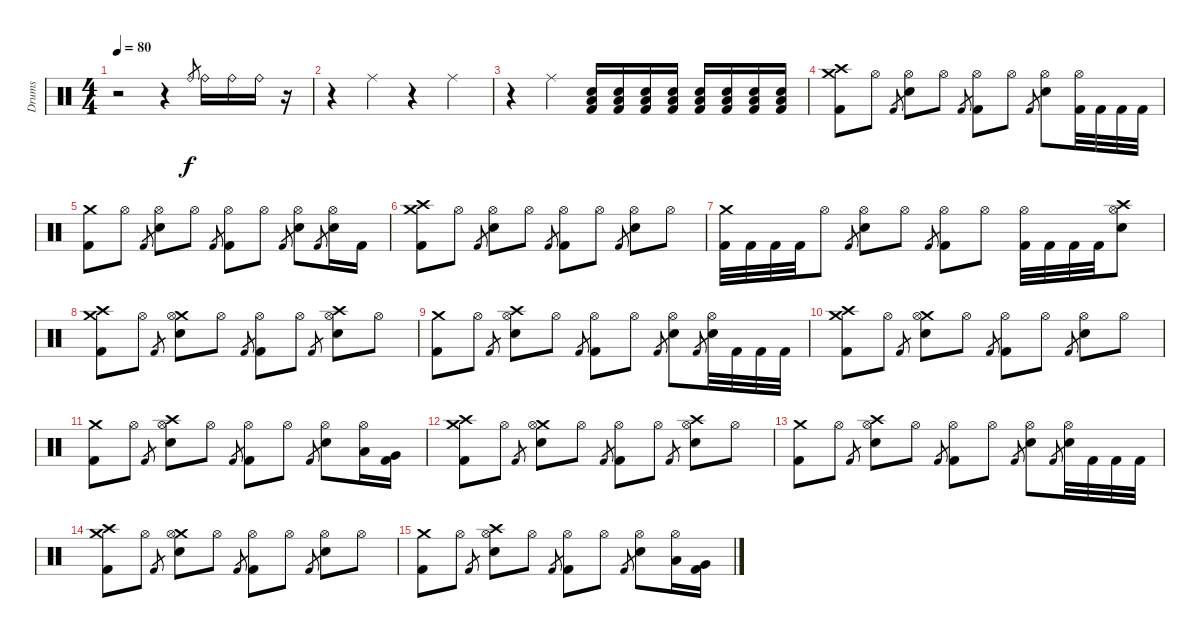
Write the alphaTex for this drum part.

\track ("Drums" "Drums") {instrument percussion}
\staff {score}
\articulation defaults
\ts (4 4)
\tempo 80
\clef neutral
\ks c
r.2{dy f} r.4 "Ride (bell)".8{gr} "Ride (bell)".16 "Ride (bell)".16 "Ride (bell)".16 r.16 |
r.4 "Ride (middle)".4 r.4 "Ride (middle)".4 |
r.4{volume 0} "Ride (middle)".4 ("Electric Snare (hit)" "Low Tom (hit)" "Kick (hit) 2").16{volume 13} ("Electric Snare (hit)" "Low Tom (hit)" "Kick (hit) 2").16 ("Electric Snare (hit)" "Low Tom (hit)" "Kick (hit) 2").16 ("Electric Snare (hit)" "Low Tom (hit)" "Kick (hit) 2").16 ("Electric Snare (hit)" "Low Tom (hit)" "Kick (hit) 2").16 ("Electric Snare (hit)" "Low Tom (hit)" "Kick (hit) 2").16 ("Electric Snare (hit)" "Low Tom (hit)" "Kick (hit) 2").16 ("Electric Snare (hit)" "Low Tom (hit)" "Kick (hit) 2").16 |
("Crash medium (hit)" "Crash high (hit)" "Kick (hit) 2").8 "Hi-Hat (open)".8 "Kick (hit) 2".8{gr} ("Hi-Hat (open)" "Electric Snare (hit)").8 "Hi-Hat (open)".8 "Kick (hit) 2".8{gr} ("Hi-Hat (open)" "Kick (hit) 2").8 "Hi-Hat (open)".8 "Kick (hit) 2".8{gr} ("Hi-Hat (open)" "Electric Snare (hit)").8 ("Hi-Hat (open)" "Kick (hit) 2").32 "Kick (hit) 2".32 "Kick (hit) 2".32 "Kick (hit) 2".32 |
("Crash medium (hit)" "Kick (hit) 2").8 "Hi-Hat (open)".8 "Kick (hit) 2".8{gr} ("Hi-Hat (open)" "Electric Snare (hit)").8 "Hi-Hat (open)".8 "Kick (hit) 2".8{gr} ("Hi-Hat (open)" "Kick (hit) 2").8 "Hi-Hat (open)".8 "Kick (hit) 2".8{gr} ("Hi-Hat (open)" "Electric Snare (hit)").8 "Kick (hit) 2".8{gr} ("Hi-Hat (open)" "Electric Snare (hit)").16 "Kick (hit) 2".16 |
("Crash medium (hit)" "Crash high (hit)" "Kick (hit) 2").8 "Hi-Hat (open)".8 "Kick (hit) 2".8{gr} ("Hi-Hat (open)" "Electric Snare (hit)").8 "Hi-Hat (open)".8 "Kick (hit) 2".8{gr} ("Hi-Hat (open)" "Kick (hit) 2").8 "Hi-Hat (open)".8 "Kick (hit) 2".8{gr} ("Hi-Hat (open)" "Electric Snare (hit)").8 "Hi-Hat (open)".8 |
("Crash medium (hit)" "Kick (hit) 2").32 "Kick (hit) 2".32 "Kick (hit) 2".32 "Kick (hit) 2".32 "Hi-Hat (open)".8 "Kick (hit) 2".8{gr} ("Hi-Hat (open)" "Electric Snare (hit)").8 "Hi-Hat (open)".8 "Kick (hit) 2".8{gr} ("Hi-Hat (open)" "Kick (hit) 2").8 "Hi-Hat (open)".8 ("Hi-Hat (open)" "Kick (hit) 2").32 "Kick (hit) 2".32 "Kick (hit) 2".32 "Kick (hit) 2".32 ("Crash high (hit)" "Hi-Hat (open)" "Electric Snare (hit)").8 |
("Crash medium (hit)" "Crash high (hit)" "Kick (hit) 2").8 "Hi-Hat (open)".8 "Kick (hit) 2".8{gr} ("Crash medium (hit)" "Hi-Hat (open)" "Electric Snare (hit)").8 "Hi-Hat (open)".8 "Kick (hit) 2".8{gr} ("Hi-Hat (open)" "Kick (hit) 2").8 "Hi-Hat (open)".8 "Kick (hit) 2".8{gr} ("Crash high (hit)" "Hi-Hat (open)" "Electric Snare (hit)").8 "Hi-Hat (open)".8 |
("Crash medium (hit)" "Kick (hit) 2").8 "Hi-Hat (open)".8 "Kick (hit) 2".8{gr} ("Crash high (hit)" "Hi-Hat (open)" "Electric Snare (hit)").8 "Hi-Hat (open)".8 "Kick (hit) 2".8{gr} ("Hi-Hat (open)" "Kick (hit) 2").8 "Hi-Hat (open)".8 "Kick (hit) 2".8{gr} ("Hi-Hat (open)" "Electric Snare (hit)").8 "Kick (hit) 2".8{gr} ("Hi-Hat (open)" "Electric Snare (hit)").32 "Kick (hit) 2".32 "Kick (hit) 2".32 "Kick (hit) 2".32 |
("Crash medium (hit)" "Crash high (hit)" "Kick (hit) 2").8 "Hi-Hat (open)".8 "Kick (hit) 2".8{gr} ("Crash medium (hit)" "Hi-Hat (open)" "Electric Snare (hit)").8 "Hi-Hat (open)".8 "Kick (hit) 2".8{gr} ("Hi-Hat (open)" "Kick (hit) 2").8 "Hi-Hat (open)".8 "Kick (hit) 2".8{gr} ("Hi-Hat (open)" "Electric Snare (hit)").8 "Hi-Hat (open)".8 |
("Crash medium (hit)" "Kick (hit) 2").8 "Hi-Hat (open)".8 "Kick (hit) 2".8{gr} ("Crash high (hit)" "Hi-Hat (open)" "Electric Snare (hit)").8 "Hi-Hat (open)".8 "Kick (hit) 2".8{gr} ("Hi-Hat (open)" "Kick (hit) 2").8 "Hi-Hat (open)".8 "Kick (hit) 2".8{gr} ("Hi-Hat (open)" "Electric Snare (hit)").8 ("Hi-Hat (open)" "Low Tom (hit)").16 ("Kick (hit) 2" "Very Low Tom (hit)").16 |
("Crash medium (hit)" "Crash high (hit)" "Kick (hit) 2").8{volume 0} "Hi-Hat (open)".8 "Kick (hit) 2".8{gr} ("Crash medium (hit)" "Hi-Hat (open)" "Electric Snare (hit)").8 "Hi-Hat (open)".8 "Kick (hit) 2".8{gr} ("Hi-Hat (open)" "Kick (hit) 2").8 "Hi-Hat (open)".8 "Kick (hit) 2".8{gr} ("Crash high (hit)" "Hi-Hat (open)" "Electric Snare (hit)").8 "Hi-Hat (open)".8 |
("Crash medium (hit)" "Kick (hit) 2").8 "Hi-Hat (open)".8 "Kick (hit) 2".8{gr} ("Crash high (hit)" "Hi-Hat (open)" "Electric Snare (hit)").8 "Hi-Hat (open)".8 "Kick (hit) 2".8{gr} ("Hi-Hat (open)" "Kick (hit) 2").8 "Hi-Hat (open)".8 "Kick (hit) 2".8{gr} ("Hi-Hat (open)" "Electric Snare (hit)").8 "Kick (hit) 2".8{gr} ("Hi-Hat (open)" "Electric Snare (hit)").32 "Kick (hit) 2".32 "Kick (hit) 2".32 "Kick (hit) 2".32 |
("Crash medium (hit)" "Crash high (hit)" "Kick (hit) 2").8 "Hi-Hat (open)".8 "Kick (hit) 2".8{gr} ("Crash medium (hit)" "Hi-Hat (open)" "Electric Snare (hit)").8 "Hi-Hat (open)".8 "Kick (hit) 2".8{gr} ("Hi-Hat (open)" "Kick (hit) 2").8 "Hi-Hat (open)".8 "Kick (hit) 2".8{gr} ("Hi-Hat (open)" "Electric Snare (hit)").8 "Hi-Hat (open)".8 |
("Crash medium (hit)" "Kick (hit) 2").8 "Hi-Hat (open)".8 "Kick (hit) 2".8{gr} ("Crash high (hit)" "Hi-Hat (open)" "Electric Snare (hit)").8 "Hi-Hat (open)".8 "Kick (hit) 2".8{gr} ("Hi-Hat (open)" "Kick (hit) 2").8 "Hi-Hat (open)".8 "Kick (hit) 2".8{gr} ("Hi-Hat (open)" "Electric Snare (hit)").8 ("Hi-Hat (open)" "Low Tom (hit)").16 ("Kick (hit) 2" "Very Low Tom (hit)").16
